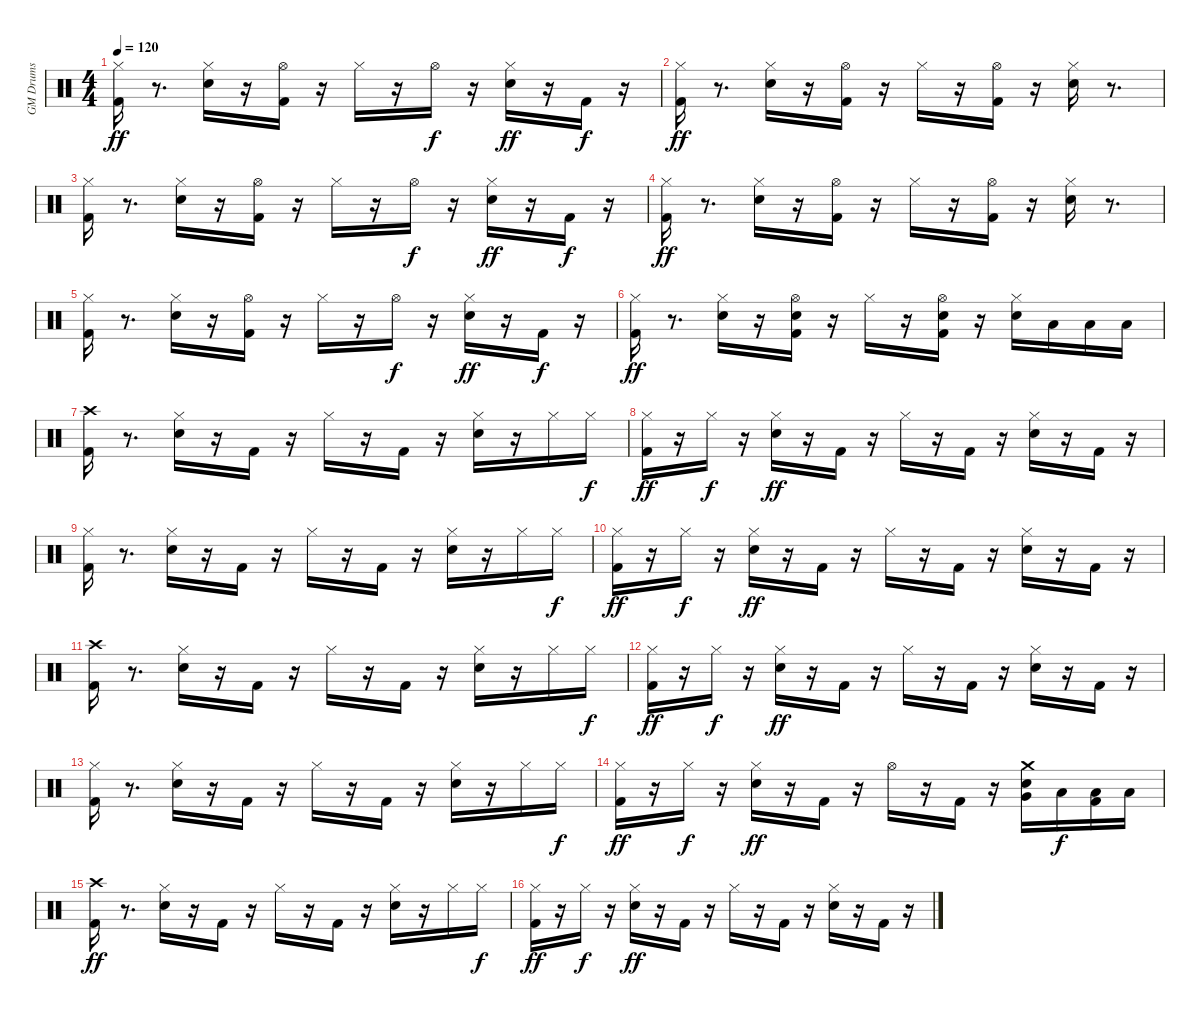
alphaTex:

\track ("GM Drums" "GM Drums") {instrument percussion}
\staff {score}
\articulation defaults
\ts (4 4)
\tempo 120
\clef neutral
\ks c
("Kick (hit) 2" "Hi-Hat (closed)").16{dy ff} r.8{d} ("Snare (hit) 2" "Hi-Hat (closed)").16 r.16 ("Kick (hit) 2" "Hi-Hat (open)").16 r.16 "Hi-Hat (closed)".16 r.16 "Hi-Hat (open)".16{dy f} r.16 ("Snare (hit) 2" "Hi-Hat (closed)").16{dy ff} r.16 "Kick (hit) 2".16{dy f} r.16 |
("Kick (hit) 2" "Hi-Hat (closed)").16{dy ff} r.8{d} ("Snare (hit) 2" "Hi-Hat (closed)").16 r.16 ("Kick (hit) 2" "Hi-Hat (open)").16 r.16 "Hi-Hat (closed)".16 r.16 ("Kick (hit) 2" "Hi-Hat (open)").16 r.16 ("Snare (hit) 2" "Hi-Hat (closed)").16 r.8{d} |
("Kick (hit) 2" "Hi-Hat (closed)").16 r.8{d} ("Snare (hit) 2" "Hi-Hat (closed)").16 r.16 ("Kick (hit) 2" "Hi-Hat (open)").16 r.16 "Hi-Hat (closed)".16 r.16 "Hi-Hat (open)".16{dy f} r.16 ("Snare (hit) 2" "Hi-Hat (closed)").16{dy ff} r.16 "Kick (hit) 2".16{dy f} r.16 |
("Kick (hit) 2" "Hi-Hat (closed)").16{dy ff} r.8{d} ("Snare (hit) 2" "Hi-Hat (closed)").16 r.16 ("Kick (hit) 2" "Hi-Hat (open)").16 r.16 "Hi-Hat (closed)".16 r.16 ("Kick (hit) 2" "Hi-Hat (open)").16 r.16 ("Snare (hit) 2" "Hi-Hat (closed)").16 r.8{d} |
("Kick (hit) 2" "Hi-Hat (closed)").16 r.8{d} ("Snare (hit) 2" "Hi-Hat (closed)").16 r.16 ("Kick (hit) 2" "Hi-Hat (open)").16 r.16 "Hi-Hat (closed)".16 r.16 "Hi-Hat (open)".16{dy f} r.16 ("Snare (hit) 2" "Hi-Hat (closed)").16{dy ff} r.16 "Kick (hit) 2".16{dy f} r.16 |
("Kick (hit) 2" "Hi-Hat (closed)").16{dy ff} r.8{d} ("Snare (hit) 2" "Hi-Hat (closed)").16 r.16 ("Kick (hit) 2" "Snare (hit) 2" "Hi-Hat (open)").16 r.16 "Hi-Hat (closed)".16 r.16 ("Kick (hit) 2" "Snare (hit) 2" "Hi-Hat (open)").16 r.16 ("Snare (hit) 2" "Hi-Hat (closed)").16 "Low Floor Tom (hit)".16 "Low Floor Tom (hit)".16 "Low Floor Tom (hit)".16 |
("Kick (hit) 2" "Crash high (hit)").16 r.8{d} ("Snare (hit) 2" "Hi-Hat (closed)").16 r.16 "Kick (hit) 2".16 r.16 "Hi-Hat (closed)".16 r.16 "Kick (hit) 2".16 r.16 ("Snare (hit) 2" "Hi-Hat (closed)").16 r.16 "Hi-Hat (closed)".16 "Hi-Hat (closed)".16{dy f} |
("Kick (hit) 2" "Hi-Hat (closed)").16{dy ff} r.16 "Hi-Hat (closed)".16{dy f} r.16 ("Snare (hit) 2" "Hi-Hat (closed)").16{dy ff} r.16 "Kick (hit) 2".16 r.16 "Hi-Hat (closed)".16 r.16 "Kick (hit) 2".16 r.16 ("Snare (hit) 2" "Hi-Hat (closed)").16 r.16 "Kick (hit) 2".16 r.16 |
("Kick (hit) 2" "Hi-Hat (closed)").16 r.8{d} ("Snare (hit) 2" "Hi-Hat (closed)").16 r.16 "Kick (hit) 2".16 r.16 "Hi-Hat (closed)".16 r.16 "Kick (hit) 2".16 r.16 ("Snare (hit) 2" "Hi-Hat (closed)").16 r.16 "Hi-Hat (closed)".16 "Hi-Hat (closed)".16{dy f} |
("Kick (hit) 2" "Hi-Hat (closed)").16{dy ff} r.16 "Hi-Hat (closed)".16{dy f} r.16 ("Snare (hit) 2" "Hi-Hat (closed)").16{dy ff} r.16 "Kick (hit) 2".16 r.16 "Hi-Hat (closed)".16 r.16 "Kick (hit) 2".16 r.16 ("Snare (hit) 2" "Hi-Hat (closed)").16 r.16 "Kick (hit) 2".16 r.16 |
("Kick (hit) 2" "Crash high (hit)").16 r.8{d} ("Snare (hit) 2" "Hi-Hat (closed)").16 r.16 "Kick (hit) 2".16 r.16 "Hi-Hat (closed)".16 r.16 "Kick (hit) 2".16 r.16 ("Snare (hit) 2" "Hi-Hat (closed)").16 r.16 "Hi-Hat (closed)".16 "Hi-Hat (closed)".16{dy f} |
("Kick (hit) 2" "Hi-Hat (closed)").16{dy ff} r.16 "Hi-Hat (closed)".16{dy f} r.16 ("Snare (hit) 2" "Hi-Hat (closed)").16{dy ff} r.16 "Kick (hit) 2".16 r.16 "Hi-Hat (closed)".16 r.16 "Kick (hit) 2".16 r.16 ("Snare (hit) 2" "Hi-Hat (closed)").16 r.16 "Kick (hit) 2".16 r.16 |
("Kick (hit) 2" "Hi-Hat (closed)").16 r.8{d} ("Snare (hit) 2" "Hi-Hat (closed)").16 r.16 "Kick (hit) 2".16 r.16 "Hi-Hat (closed)".16 r.16 "Kick (hit) 2".16 r.16 ("Snare (hit) 2" "Hi-Hat (closed)").16 r.16 "Hi-Hat (closed)".16 "Hi-Hat (closed)".16{dy f} |
("Kick (hit) 2" "Hi-Hat (closed)").16{dy ff} r.16 "Hi-Hat (closed)".16{dy f} r.16 ("Snare (hit) 2" "Hi-Hat (closed)").16{dy ff} r.16 "Kick (hit) 2".16 r.16 "Hi-Hat (open)".16 r.16 "Kick (hit) 2".16 r.16 ("Snare (hit) 2" "Very Low Tom (hit)" "Crash medium (hit)").16 "Low Floor Tom (hit)".16{dy f} ("Kick (hit) 2" "Low Floor Tom (hit)").16 "Low Floor Tom (hit)".16 |
("Kick (hit) 2" "Crash high (hit)").16{dy ff} r.8{d} ("Snare (hit) 2" "Hi-Hat (closed)").16 r.16 "Kick (hit) 2".16 r.16 "Hi-Hat (closed)".16 r.16 "Kick (hit) 2".16 r.16 ("Snare (hit) 2" "Hi-Hat (closed)").16 r.16 "Hi-Hat (closed)".16 "Hi-Hat (closed)".16{dy f} |
("Kick (hit) 2" "Hi-Hat (closed)").16{dy ff} r.16 "Hi-Hat (closed)".16{dy f} r.16 ("Snare (hit) 2" "Hi-Hat (closed)").16{dy ff} r.16 "Kick (hit) 2".16 r.16 "Hi-Hat (closed)".16 r.16 "Kick (hit) 2".16 r.16 ("Snare (hit) 2" "Hi-Hat (closed)").16 r.16 "Kick (hit) 2".16 r.16
